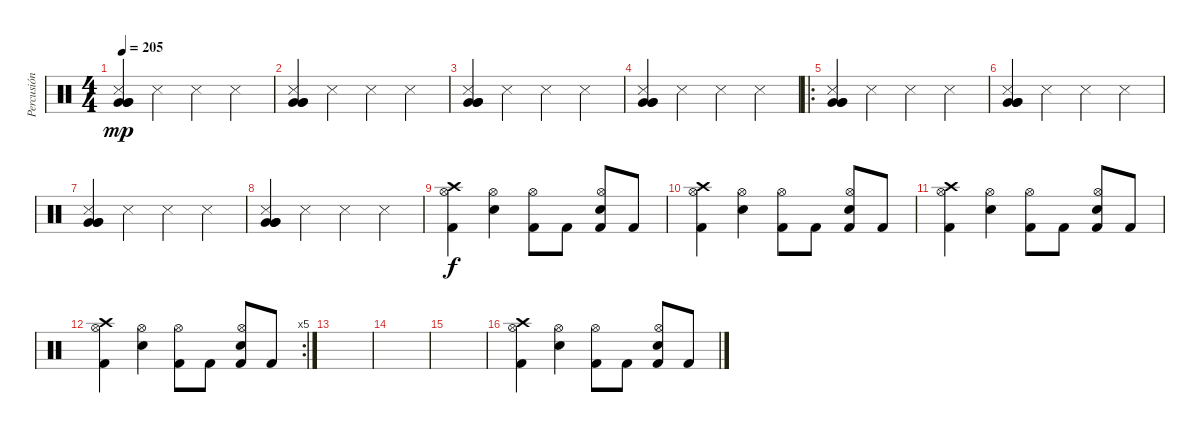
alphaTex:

\track ("Percusión" "Percusión") {instrument percussion}
\staff {score}
\articulation defaults
\ts (4 4)
\tempo 205
\clef neutral
\ks c
("Very Low Tom (hit)" "Very Low Tom (hit)" "Very Low Tom (hit)" "Snare (side stick) 3").4{dy mp} "Metronome (hit)".4 "Snare (side stick) 3".4 "Metronome (hit)".4 |
("Very Low Tom (hit)" "Very Low Tom (hit)" "Very Low Tom (hit)" "Snare (side stick) 3").4 "Metronome (hit)".4 "Snare (side stick) 3".4 "Metronome (hit)".4 |
("Very Low Tom (hit)" "Very Low Tom (hit)" "Very Low Tom (hit)" "Snare (side stick) 3").4 "Metronome (hit)".4 "Snare (side stick) 3".4 "Metronome (hit)".4 |
("Very Low Tom (hit)" "Very Low Tom (hit)" "Very Low Tom (hit)" "Snare (side stick) 3").4 "Metronome (hit)".4 "Snare (side stick) 3".4 "Metronome (hit)".4 |
\ro
("Very Low Tom (hit)" "Very Low Tom (hit)" "Very Low Tom (hit)" "Snare (side stick) 3").4 "Metronome (hit)".4 "Snare (side stick) 3".4 "Metronome (hit)".4 |
("Very Low Tom (hit)" "Very Low Tom (hit)" "Very Low Tom (hit)" "Snare (side stick) 3").4 "Metronome (hit)".4 "Snare (side stick) 3".4 "Metronome (hit)".4 |
("Very Low Tom (hit)" "Very Low Tom (hit)" "Very Low Tom (hit)" "Snare (side stick) 3").4 "Metronome (hit)".4 "Snare (side stick) 3".4 "Metronome (hit)".4 |
("Very Low Tom (hit)" "Very Low Tom (hit)" "Very Low Tom (hit)" "Snare (side stick) 3").4 "Metronome (hit)".4 "Snare (side stick) 3".4 "Metronome (hit)".4 |
("Crash high (hit)" "Kick (hit) 2" "Hi-Hat (open)").4{dy f} ("Snare (hit) 2" "Hi-Hat (open)").4 ("Kick (hit) 2" "Hi-Hat (open)").8 "Kick (hit) 2".8 ("Snare (hit) 2" "Kick (hit) 2" "Hi-Hat (open)").8 "Kick (hit) 2".8 |
("Crash high (hit)" "Kick (hit) 2" "Hi-Hat (open)").4 ("Snare (hit) 2" "Hi-Hat (open)").4 ("Kick (hit) 2" "Hi-Hat (open)").8 "Kick (hit) 2".8 ("Snare (hit) 2" "Kick (hit) 2" "Hi-Hat (open)").8 "Kick (hit) 2".8 |
("Crash high (hit)" "Kick (hit) 2" "Hi-Hat (open)").4 ("Snare (hit) 2" "Hi-Hat (open)").4 ("Kick (hit) 2" "Hi-Hat (open)").8 "Kick (hit) 2".8 ("Snare (hit) 2" "Kick (hit) 2" "Hi-Hat (open)").8 "Kick (hit) 2".8 |
\rc 5
("Crash high (hit)" "Kick (hit) 2" "Hi-Hat (open)").4 ("Snare (hit) 2" "Hi-Hat (open)").4 ("Kick (hit) 2" "Hi-Hat (open)").8 "Kick (hit) 2".8 ("Snare (hit) 2" "Kick (hit) 2" "Hi-Hat (open)").8 "Kick (hit) 2".8 |
|
|
|
("Crash high (hit)" "Kick (hit) 2" "Hi-Hat (open)").4 ("Snare (hit) 2" "Hi-Hat (open)").4 ("Kick (hit) 2" "Hi-Hat (open)").8 "Kick (hit) 2".8 ("Snare (hit) 2" "Kick (hit) 2" "Hi-Hat (open)").8 "Kick (hit) 2".8
